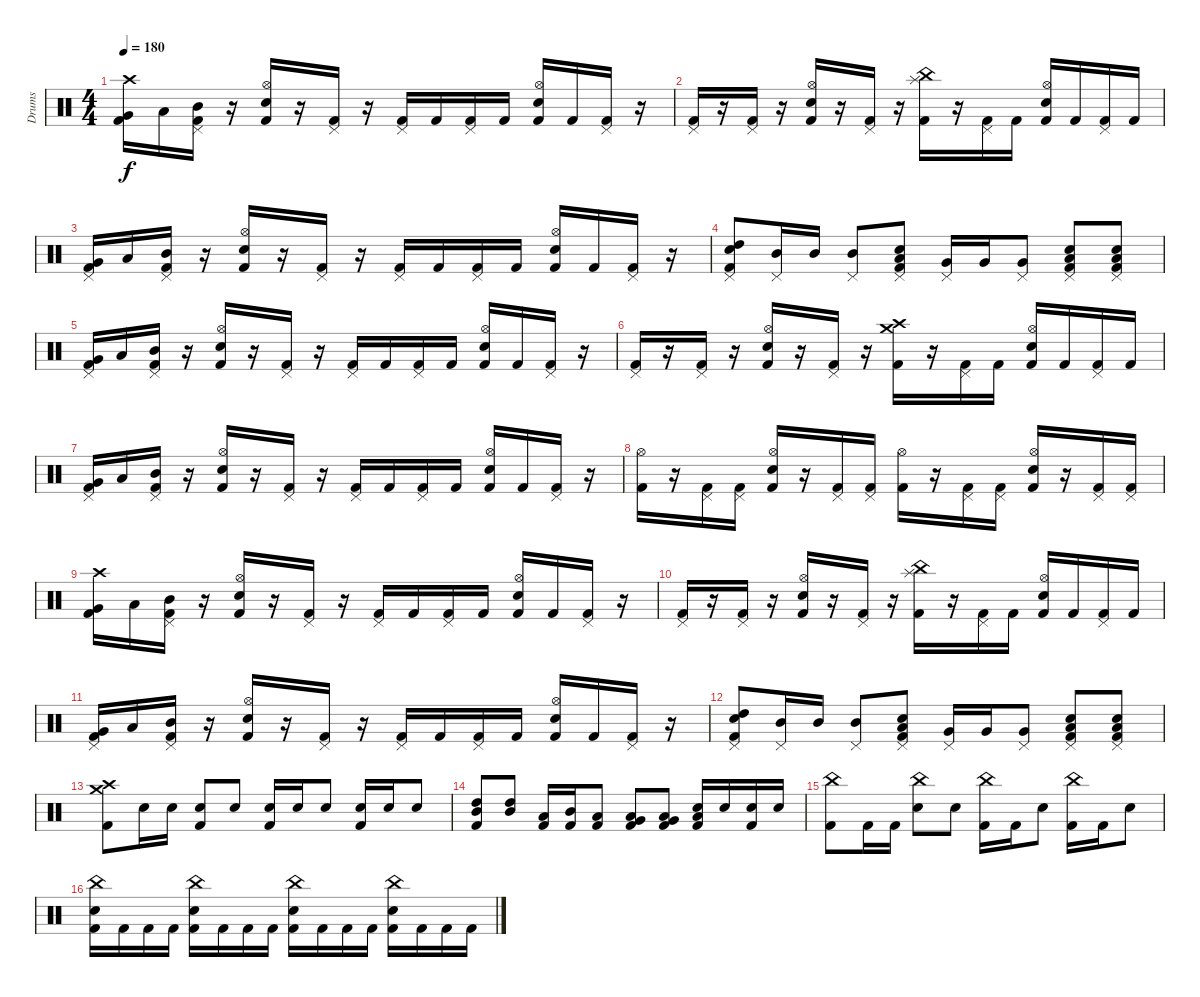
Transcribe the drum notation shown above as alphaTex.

\track ("Drums" "Drums") {instrument percussion}
\staff {score}
\articulation defaults
\ts (4 4)
\tempo 180
\clef neutral
\ks c
("Crash high (hit)" "Very Low Tom (hit)" "Kick (hit) 2").16{dy f} "Low Tom (hit)".16 ("Pedal Hi-Hat (hit)" "Mid Tom (hit)" "Kick (hit) 2").16 r.16 ("Hi-Hat (open)" "Snare (hit) 2" "Kick (hit) 2").16 r.16 ("Pedal Hi-Hat (hit)" "Kick (hit) 2").16 r.16 ("Pedal Hi-Hat (hit)" "Kick (hit) 2").16 "Kick (hit) 2".16 ("Pedal Hi-Hat (hit)" "Kick (hit) 2").16 "Kick (hit) 2".16 ("Hi-Hat (open)" "Snare (hit) 2" "Kick (hit) 2").16 "Kick (hit) 2".16 ("Pedal Hi-Hat (hit)" "Kick (hit) 2").16 r.16 |
("Pedal Hi-Hat (hit)" "Kick (hit) 2").16 r.16 ("Pedal Hi-Hat (hit)" "Kick (hit) 2").16 r.16 ("Hi-Hat (open)" "Snare (hit) 2" "Kick (hit) 2").16 r.16 ("Pedal Hi-Hat (hit)" "Kick (hit) 2").16 r.16 ("China (hit)" "Splash (hit)" "Kick (hit) 2").16 r.16 ("Pedal Hi-Hat (hit)" "Kick (hit) 2").16 "Kick (hit) 2".16 ("Hi-Hat (open)" "Snare (hit) 2" "Kick (hit) 2").16 "Kick (hit) 2".16 ("Pedal Hi-Hat (hit)" "Kick (hit) 2").16 "Kick (hit) 2".16 |
("Pedal Hi-Hat (hit)" "Very Low Tom (hit)" "Kick (hit) 2").16 "Low Tom (hit)".16 ("Pedal Hi-Hat (hit)" "Mid Tom (hit)" "Kick (hit) 2").16 r.16 ("Hi-Hat (open)" "Snare (hit) 2" "Kick (hit) 2").16 r.16 ("Pedal Hi-Hat (hit)" "Kick (hit) 2").16 r.16 ("Pedal Hi-Hat (hit)" "Kick (hit) 2").16 "Kick (hit) 2".16 ("Pedal Hi-Hat (hit)" "Kick (hit) 2").16 "Kick (hit) 2".16 ("Hi-Hat (open)" "Snare (hit) 2" "Kick (hit) 2").16 "Kick (hit) 2".16 ("Pedal Hi-Hat (hit)" "Kick (hit) 2").16 r.16 |
("Pedal Hi-Hat (hit)" "High Tom (hit)" "Snare (hit) 2" "Kick (hit) 2").8 ("Pedal Hi-Hat (hit)" "Mid Tom (hit)").16 "Mid Tom (hit)".16 ("Pedal Hi-Hat (hit)" "Mid Tom (hit)").8 ("Pedal Hi-Hat (hit)" "Low Tom (hit)" "Snare (hit) 2" "Kick (hit) 2").8 ("Pedal Hi-Hat (hit)" "Very Low Tom (hit)").16 "Very Low Tom (hit)".16 ("Pedal Hi-Hat (hit)" "Very Low Tom (hit)").8 ("Pedal Hi-Hat (hit)" "Low Floor Tom (hit)" "Snare (hit) 2" "Kick (hit) 2").8 ("Pedal Hi-Hat (hit)" "Low Floor Tom (hit)" "Snare (hit) 2" "Kick (hit) 2").8 |
("Pedal Hi-Hat (hit)" "Very Low Tom (hit)" "Kick (hit) 2").16 "Low Tom (hit)".16 ("Pedal Hi-Hat (hit)" "Mid Tom (hit)" "Kick (hit) 2").16 r.16 ("Hi-Hat (open)" "Snare (hit) 2" "Kick (hit) 2").16 r.16 ("Pedal Hi-Hat (hit)" "Kick (hit) 2").16 r.16 ("Pedal Hi-Hat (hit)" "Kick (hit) 2").16 "Kick (hit) 2".16 ("Pedal Hi-Hat (hit)" "Kick (hit) 2").16 "Kick (hit) 2".16 ("Hi-Hat (open)" "Snare (hit) 2" "Kick (hit) 2").16 "Kick (hit) 2".16 ("Pedal Hi-Hat (hit)" "Kick (hit) 2").16 r.16 |
("Pedal Hi-Hat (hit)" "Kick (hit) 2").16 r.16 ("Pedal Hi-Hat (hit)" "Kick (hit) 2").16 r.16 ("Hi-Hat (open)" "Snare (hit) 2" "Kick (hit) 2").16 r.16 ("Pedal Hi-Hat (hit)" "Kick (hit) 2").16 r.16 ("Crash high (hit)" "Crash medium (hit)" "Kick (hit) 2").16 r.16 ("Pedal Hi-Hat (hit)" "Kick (hit) 2").16 "Kick (hit) 2".16 ("Hi-Hat (open)" "Snare (hit) 2" "Kick (hit) 2").16 "Kick (hit) 2".16 ("Pedal Hi-Hat (hit)" "Kick (hit) 2").16 "Kick (hit) 2".16 |
("Pedal Hi-Hat (hit)" "Very Low Tom (hit)" "Kick (hit) 2").16 "Low Tom (hit)".16 ("Pedal Hi-Hat (hit)" "Mid Tom (hit)" "Kick (hit) 2").16 r.16 ("Hi-Hat (open)" "Snare (hit) 2" "Kick (hit) 2").16 r.16 ("Pedal Hi-Hat (hit)" "Kick (hit) 2").16 r.16 ("Pedal Hi-Hat (hit)" "Kick (hit) 2").16 "Kick (hit) 2".16 ("Pedal Hi-Hat (hit)" "Kick (hit) 2").16 "Kick (hit) 2".16 ("Hi-Hat (open)" "Snare (hit) 2" "Kick (hit) 2").16 "Kick (hit) 2".16 ("Pedal Hi-Hat (hit)" "Kick (hit) 2").16 r.16 |
("Hi-Hat (open)" "Kick (hit) 2").16 r.16 ("Pedal Hi-Hat (hit)" "Kick (hit) 2").16 ("Pedal Hi-Hat (hit)" "Kick (hit) 2").16 ("Hi-Hat (open)" "Snare (hit) 2" "Kick (hit) 2").16 r.16 ("Pedal Hi-Hat (hit)" "Kick (hit) 2").16 ("Pedal Hi-Hat (hit)" "Kick (hit) 2").16 ("Hi-Hat (open)" "Kick (hit) 2").16 r.16 ("Pedal Hi-Hat (hit)" "Kick (hit) 2").16 ("Pedal Hi-Hat (hit)" "Kick (hit) 2").16 ("Hi-Hat (open)" "Snare (hit) 2" "Kick (hit) 2").16 r.16 ("Pedal Hi-Hat (hit)" "Kick (hit) 2").16 ("Pedal Hi-Hat (hit)" "Kick (hit) 2").16 |
("Crash high (hit)" "Very Low Tom (hit)" "Kick (hit) 2").16 "Low Tom (hit)".16 ("Pedal Hi-Hat (hit)" "Mid Tom (hit)" "Kick (hit) 2").16 r.16 ("Hi-Hat (open)" "Snare (hit) 2" "Kick (hit) 2").16 r.16 ("Pedal Hi-Hat (hit)" "Kick (hit) 2").16 r.16 ("Pedal Hi-Hat (hit)" "Kick (hit) 2").16 "Kick (hit) 2".16 ("Pedal Hi-Hat (hit)" "Kick (hit) 2").16 "Kick (hit) 2".16 ("Hi-Hat (open)" "Snare (hit) 2" "Kick (hit) 2").16 "Kick (hit) 2".16 ("Pedal Hi-Hat (hit)" "Kick (hit) 2").16 r.16 |
("Pedal Hi-Hat (hit)" "Kick (hit) 2").16 r.16 ("Pedal Hi-Hat (hit)" "Kick (hit) 2").16 r.16 ("Hi-Hat (open)" "Snare (hit) 2" "Kick (hit) 2").16 r.16 ("Pedal Hi-Hat (hit)" "Kick (hit) 2").16 r.16 ("China (hit)" "Splash (hit)" "Kick (hit) 2").16 r.16 ("Pedal Hi-Hat (hit)" "Kick (hit) 2").16 "Kick (hit) 2".16 ("Hi-Hat (open)" "Snare (hit) 2" "Kick (hit) 2").16 "Kick (hit) 2".16 ("Pedal Hi-Hat (hit)" "Kick (hit) 2").16 "Kick (hit) 2".16 |
("Pedal Hi-Hat (hit)" "Very Low Tom (hit)" "Kick (hit) 2").16 "Low Tom (hit)".16 ("Pedal Hi-Hat (hit)" "Mid Tom (hit)" "Kick (hit) 2").16 r.16 ("Hi-Hat (open)" "Snare (hit) 2" "Kick (hit) 2").16 r.16 ("Pedal Hi-Hat (hit)" "Kick (hit) 2").16 r.16 ("Pedal Hi-Hat (hit)" "Kick (hit) 2").16 "Kick (hit) 2".16 ("Pedal Hi-Hat (hit)" "Kick (hit) 2").16 "Kick (hit) 2".16 ("Hi-Hat (open)" "Snare (hit) 2" "Kick (hit) 2").16 "Kick (hit) 2".16 ("Pedal Hi-Hat (hit)" "Kick (hit) 2").16 r.16 |
("Pedal Hi-Hat (hit)" "High Tom (hit)" "Snare (hit) 2" "Kick (hit) 2").8 ("Pedal Hi-Hat (hit)" "Mid Tom (hit)").16 "Mid Tom (hit)".16 ("Pedal Hi-Hat (hit)" "Mid Tom (hit)").8 ("Pedal Hi-Hat (hit)" "Low Tom (hit)" "Snare (hit) 2" "Kick (hit) 2").8 ("Pedal Hi-Hat (hit)" "Very Low Tom (hit)").16 "Very Low Tom (hit)".16 ("Pedal Hi-Hat (hit)" "Very Low Tom (hit)").8 ("Pedal Hi-Hat (hit)" "Low Floor Tom (hit)" "Snare (hit) 2" "Kick (hit) 2").8 ("Pedal Hi-Hat (hit)" "Low Floor Tom (hit)" "Snare (hit) 2" "Kick (hit) 2").8 |
("Crash medium (hit)" "Crash high (hit)" "Kick (hit) 2").8 "Snare (hit) 2".16 "Snare (hit) 2".16 ("Snare (hit) 2" "Kick (hit) 2").8 "Snare (hit) 2".8 ("Snare (hit) 2" "Kick (hit) 2").16 "Snare (hit) 2".16 "Snare (hit) 2".8 ("Snare (hit) 2" "Kick (hit) 2").16 "Snare (hit) 2".16 "Snare (hit) 2".8 |
("High Tom (hit)" "Mid Tom (hit)" "Kick (hit) 2").8 ("High Tom (hit)" "Mid Tom (hit)").8 ("Low Tom (hit)" "Kick (hit) 2").16 ("Mid Tom (hit)" "Kick (hit) 2").16 ("Low Tom (hit)" "Kick (hit) 2").8 ("Low Tom (hit)" "Very Low Tom (hit)" "Kick (hit) 2").8 ("Very Low Tom (hit)" "Low Floor Tom (hit)" "Kick (hit) 2").8 ("Low Floor Tom (hit)" "Snare (hit) 2" "Kick (hit) 2").16 "Snare (hit) 2".16 ("Snare (hit) 2" "Kick (hit) 2").16 "Snare (hit) 2".16 |
("China (hit)" "Kick (hit) 2").8 "Kick (hit) 2".16 "Kick (hit) 2".16 ("China (hit)" "Snare (hit) 2").8 "Snare (hit) 2".8 ("China (hit)" "Kick (hit) 2").16 "Kick (hit) 2".16 "Snare (hit) 2".8 ("China (hit)" "Kick (hit) 2").16 "Kick (hit) 2".16 "Snare (hit) 2".8 |
("China (hit)" "Snare (hit) 2" "Kick (hit) 2").16 "Kick (hit) 2".16 "Kick (hit) 2".16 "Kick (hit) 2".16 ("China (hit)" "Snare (hit) 2" "Kick (hit) 2").16 "Kick (hit) 2".16 "Kick (hit) 2".16 "Kick (hit) 2".16 ("China (hit)" "Snare (hit) 2" "Kick (hit) 2").16 "Kick (hit) 2".16 "Kick (hit) 2".16 "Kick (hit) 2".16 ("China (hit)" "Snare (hit) 2" "Kick (hit) 2").16 "Kick (hit) 2".16 "Kick (hit) 2".16 "Kick (hit) 2".16
